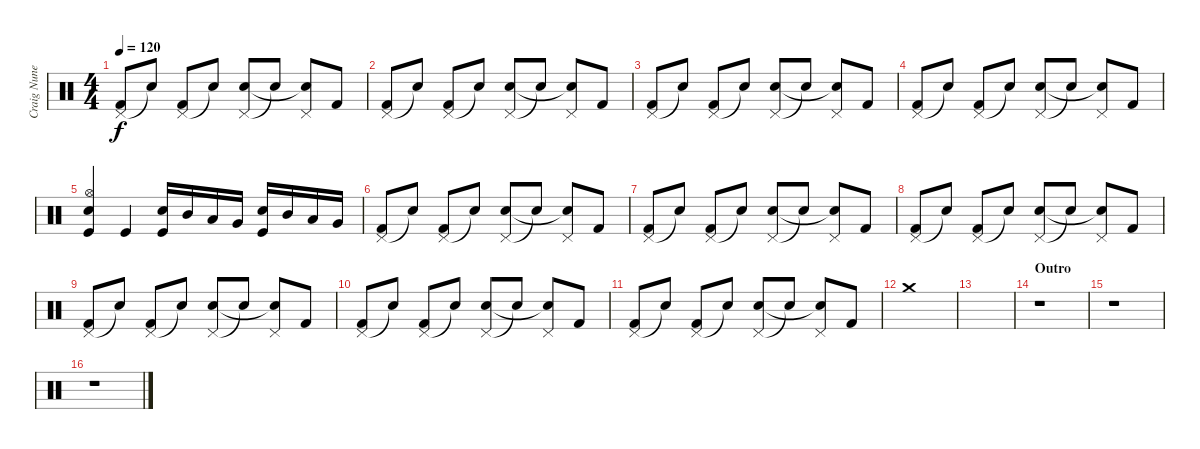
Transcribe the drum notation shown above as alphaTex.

\track ("Craig Nunenmacher" "Craig Nune") {instrument percussion}
\staff {score}
\articulation defaults
\ts (4 4)
\tempo 120
\clef neutral
\ks c
("Pedal Hi-Hat (hit)" "Kick (hit) 2").8{dy f} "Snare (hit)"{t}.8 ("Pedal Hi-Hat (hit)" "Kick (hit) 2").8 "Snare (hit)"{t}.8 ("Pedal Hi-Hat (hit)" "Snare (hit) 2").8 "Snare (hit)"{t}.8 ("Pedal Hi-Hat (hit)" "Snare (hit)"{t}).8 "Kick (hit) 2".8 |
("Pedal Hi-Hat (hit)" "Kick (hit) 2").8 "Snare (hit)"{t}.8 ("Pedal Hi-Hat (hit)" "Kick (hit) 2").8 "Snare (hit)"{t}.8 ("Pedal Hi-Hat (hit)" "Snare (hit) 2").8 "Snare (hit)"{t}.8 ("Pedal Hi-Hat (hit)" "Snare (hit)"{t}).8 "Kick (hit) 2".8 |
("Pedal Hi-Hat (hit)" "Kick (hit) 2").8 "Snare (hit)"{t}.8 ("Pedal Hi-Hat (hit)" "Kick (hit) 2").8 "Snare (hit)"{t}.8 ("Pedal Hi-Hat (hit)" "Snare (hit) 2").8 "Snare (hit)"{t}.8 ("Pedal Hi-Hat (hit)" "Snare (hit)"{t}).8 "Kick (hit) 2".8 |
("Pedal Hi-Hat (hit)" "Kick (hit) 2").8 "Snare (hit)"{t}.8 ("Pedal Hi-Hat (hit)" "Kick (hit) 2").8 "Snare (hit)"{t}.8 ("Pedal Hi-Hat (hit)" "Snare (hit) 2").8 "Snare (hit)"{t}.8 ("Pedal Hi-Hat (hit)" "Snare (hit)"{t}).8 "Kick (hit) 2".8 |
("Hi-Hat (open)" "Snare (hit) 2" "Kick (hit)").4 "Kick (hit)".4 ("Snare (hit) 2" "Kick (hit)").16 "Mid Tom (hit)".16 "Low Tom (hit)".16 "Very Low Tom (hit)".16 ("Snare (hit) 2" "Kick (hit)").16 "Mid Tom (hit)".16 "Low Tom (hit)".16 "Very Low Tom (hit)".16 |
("Pedal Hi-Hat (hit)" "Kick (hit) 2").8 "Snare (hit)"{t}.8 ("Pedal Hi-Hat (hit)" "Kick (hit) 2").8 "Snare (hit)"{t}.8 ("Pedal Hi-Hat (hit)" "Snare (hit) 2").8 "Snare (hit)"{t}.8 ("Pedal Hi-Hat (hit)" "Snare (hit)"{t}).8 "Kick (hit) 2".8 |
("Pedal Hi-Hat (hit)" "Kick (hit) 2").8 "Snare (hit)"{t}.8 ("Pedal Hi-Hat (hit)" "Kick (hit) 2").8 "Snare (hit)"{t}.8 ("Pedal Hi-Hat (hit)" "Snare (hit) 2").8 "Snare (hit)"{t}.8 ("Pedal Hi-Hat (hit)" "Snare (hit)"{t}).8 "Kick (hit) 2".8 |
("Pedal Hi-Hat (hit)" "Kick (hit) 2").8 "Snare (hit)"{t}.8 ("Pedal Hi-Hat (hit)" "Kick (hit) 2").8 "Snare (hit)"{t}.8 ("Pedal Hi-Hat (hit)" "Snare (hit) 2").8 "Snare (hit)"{t}.8 ("Pedal Hi-Hat (hit)" "Snare (hit)"{t}).8 "Kick (hit) 2".8 |
("Pedal Hi-Hat (hit)" "Kick (hit) 2").8 "Snare (hit)"{t}.8 ("Pedal Hi-Hat (hit)" "Kick (hit) 2").8 "Snare (hit)"{t}.8 ("Pedal Hi-Hat (hit)" "Snare (hit) 2").8 "Snare (hit)"{t}.8 ("Pedal Hi-Hat (hit)" "Snare (hit)"{t}).8 "Kick (hit) 2".8 |
("Pedal Hi-Hat (hit)" "Kick (hit) 2").8 "Snare (hit)"{t}.8 ("Pedal Hi-Hat (hit)" "Kick (hit) 2").8 "Snare (hit)"{t}.8 ("Pedal Hi-Hat (hit)" "Snare (hit) 2").8 "Snare (hit)"{t}.8 ("Pedal Hi-Hat (hit)" "Snare (hit)"{t}).8 "Kick (hit) 2".8 |
("Pedal Hi-Hat (hit)" "Kick (hit) 2").8 "Snare (hit)"{t}.8 ("Pedal Hi-Hat (hit)" "Kick (hit) 2").8 "Snare (hit)"{t}.8 ("Pedal Hi-Hat (hit)" "Snare (hit) 2").8 "Snare (hit)"{t}.8 ("Pedal Hi-Hat (hit)" "Snare (hit)"{t}).8 "Kick (hit) 2".8 |
"Crash medium (hit)".1 |
|
\section ("" "Outro")
r.1 |
r.1 |
r.1
